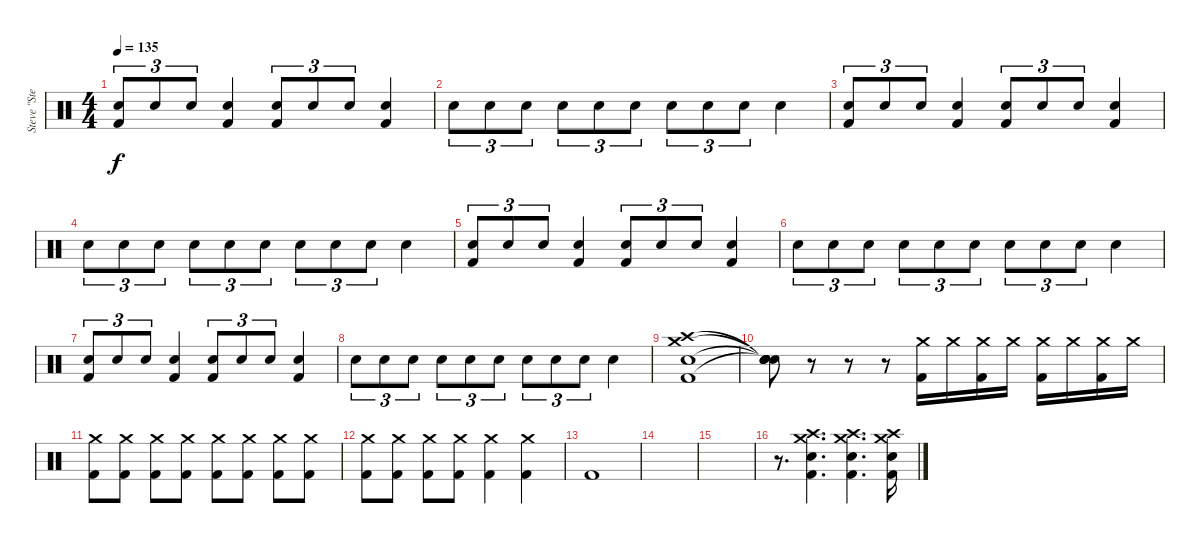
\track ("Steve \"Stevo 32\" Jocz" "Steve \"Ste") {instrument percussion}
\staff {score}
\articulation defaults
\ts (4 4)
\tempo 135
\clef neutral
\ks c
("Snare (hit) 2" "Kick (hit) 2").8{tu (3 2) dy f} "Snare (hit) 2".8{tu (3 2)} "Snare (hit) 2".8{tu (3 2)} ("Snare (hit) 2" "Kick (hit) 2").4 ("Snare (hit) 2" "Kick (hit) 2").8{tu (3 2)} "Snare (hit) 2".8{tu (3 2)} "Snare (hit) 2".8{tu (3 2)} ("Snare (hit) 2" "Kick (hit) 2").4 |
"Snare (hit) 2".8{tu (3 2)} "Snare (hit) 2".8{tu (3 2)} "Snare (hit) 2".8{tu (3 2)} "Snare (hit) 2".8{tu (3 2)} "Snare (hit) 2".8{tu (3 2)} "Snare (hit) 2".8{tu (3 2)} "Snare (hit) 2".8{tu (3 2)} "Snare (hit) 2".8{tu (3 2)} "Snare (hit) 2".8{tu (3 2)} "Snare (hit) 2".4 |
("Snare (hit) 2" "Kick (hit) 2").8{tu (3 2)} "Snare (hit) 2".8{tu (3 2)} "Snare (hit) 2".8{tu (3 2)} ("Snare (hit) 2" "Kick (hit) 2").4 ("Snare (hit) 2" "Kick (hit) 2").8{tu (3 2)} "Snare (hit) 2".8{tu (3 2)} "Snare (hit) 2".8{tu (3 2)} ("Snare (hit) 2" "Kick (hit) 2").4 |
"Snare (hit) 2".8{tu (3 2)} "Snare (hit) 2".8{tu (3 2)} "Snare (hit) 2".8{tu (3 2)} "Snare (hit) 2".8{tu (3 2)} "Snare (hit) 2".8{tu (3 2)} "Snare (hit) 2".8{tu (3 2)} "Snare (hit) 2".8{tu (3 2)} "Snare (hit) 2".8{tu (3 2)} "Snare (hit) 2".8{tu (3 2)} "Snare (hit) 2".4 |
("Snare (hit) 2" "Kick (hit) 2").8{tu (3 2)} "Snare (hit) 2".8{tu (3 2)} "Snare (hit) 2".8{tu (3 2)} ("Snare (hit) 2" "Kick (hit) 2").4 ("Snare (hit) 2" "Kick (hit) 2").8{tu (3 2)} "Snare (hit) 2".8{tu (3 2)} "Snare (hit) 2".8{tu (3 2)} ("Snare (hit) 2" "Kick (hit) 2").4 |
"Snare (hit) 2".8{tu (3 2)} "Snare (hit) 2".8{tu (3 2)} "Snare (hit) 2".8{tu (3 2)} "Snare (hit) 2".8{tu (3 2)} "Snare (hit) 2".8{tu (3 2)} "Snare (hit) 2".8{tu (3 2)} "Snare (hit) 2".8{tu (3 2)} "Snare (hit) 2".8{tu (3 2)} "Snare (hit) 2".8{tu (3 2)} "Snare (hit) 2".4 |
("Snare (hit) 2" "Kick (hit) 2").8{tu (3 2)} "Snare (hit) 2".8{tu (3 2)} "Snare (hit) 2".8{tu (3 2)} ("Snare (hit) 2" "Kick (hit) 2").4 ("Snare (hit) 2" "Kick (hit) 2").8{tu (3 2)} "Snare (hit) 2".8{tu (3 2)} "Snare (hit) 2".8{tu (3 2)} ("Snare (hit) 2" "Kick (hit) 2").4 |
"Snare (hit) 2".8{tu (3 2)} "Snare (hit) 2".8{tu (3 2)} "Snare (hit) 2".8{tu (3 2)} "Snare (hit) 2".8{tu (3 2)} "Snare (hit) 2".8{tu (3 2)} "Snare (hit) 2".8{tu (3 2)} "Snare (hit) 2".8{tu (3 2)} "Snare (hit) 2".8{tu (3 2)} "Snare (hit) 2".8{tu (3 2)} "Snare (hit) 2".4 |
("Crash medium (hit)" "Kick (hit) 2" "Snare (hit) 2" "Crash high (hit)").1 |
("Snare (hit)"{t} "Snare (hit)"{t} "Snare (hit)"{t} "Snare (hit)"{t}).8 r.8 r.8 r.8 ("Kick (hit) 2" "Crash medium (hit)").16 "Crash medium (hit)".16 ("Kick (hit) 2" "Crash medium (hit)").16 "Crash medium (hit)".16 ("Kick (hit) 2" "Crash medium (hit)").16 "Crash medium (hit)".16 ("Kick (hit) 2" "Crash medium (hit)").16 "Crash medium (hit)".16 |
("Kick (hit) 2" "Crash medium (hit)").8 ("Kick (hit) 2" "Crash medium (hit)").8 ("Kick (hit) 2" "Crash medium (hit)").8 ("Kick (hit) 2" "Crash medium (hit)").8 ("Kick (hit) 2" "Crash medium (hit)").8 ("Kick (hit) 2" "Crash medium (hit)").8 ("Kick (hit) 2" "Crash medium (hit)").8 ("Kick (hit) 2" "Crash medium (hit)").8 |
("Kick (hit) 2" "Crash medium (hit)").8 ("Kick (hit) 2" "Crash medium (hit)").8 ("Kick (hit) 2" "Crash medium (hit)").8 ("Kick (hit) 2" "Crash medium (hit)").8 ("Kick (hit) 2" "Crash medium (hit)").4 ("Kick (hit) 2" "Crash medium (hit)").4 |
"Kick (hit) 2".1 |
|
|
r.8{d} ("Kick (hit) 2" "Snare (hit) 2" "Crash high (hit)" "Crash medium (hit)").4{d} ("Kick (hit) 2" "Snare (hit) 2" "Crash high (hit)" "Crash medium (hit)").4{d} ("Kick (hit) 2" "Snare (hit) 2" "Crash high (hit)" "Crash medium (hit)").16
